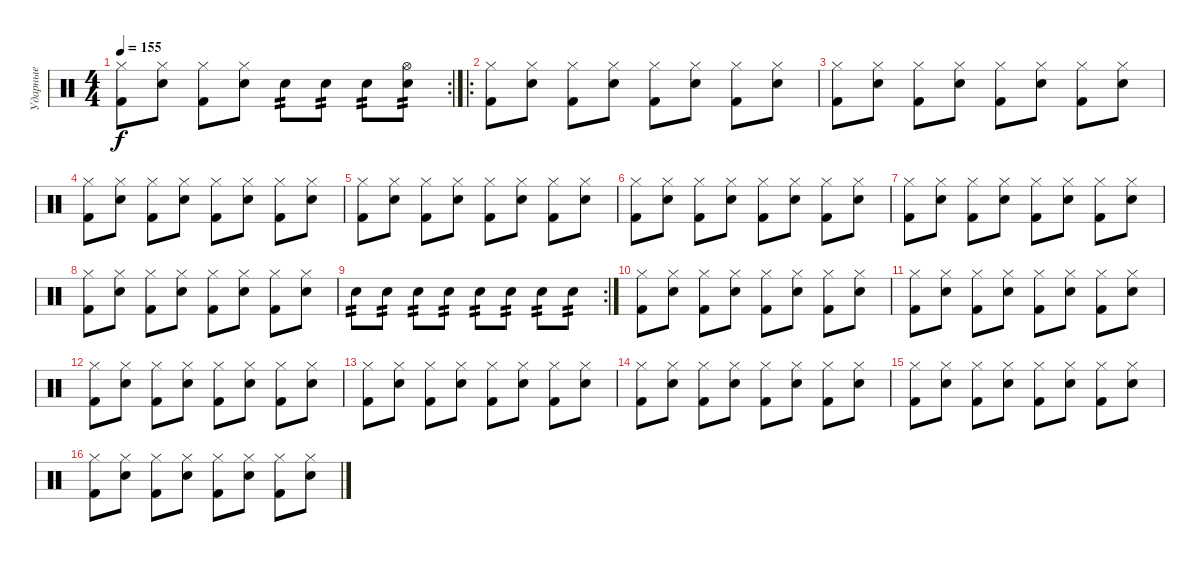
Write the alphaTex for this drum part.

\track ("Ударные" "Ударные") {instrument percussion}
\staff {score}
\articulation defaults
\rc 2
\ts (4 4)
\tempo 155
\clef neutral
\ks c
("Hi-Hat (closed)" "Kick (hit) 2").8{dy f} ("Hi-Hat (closed)" "Electric Snare (hit)").8 ("Hi-Hat (closed)" "Kick (hit) 2").8 ("Hi-Hat (closed)" "Electric Snare (hit)").8 "Electric Snare (hit)".8{tp 2} "Electric Snare (hit)".8{tp 2} "Electric Snare (hit)".8{tp 2} ("Hi-Hat (open)" "Electric Snare (hit)").8{tp 2} |
\ro
("Hi-Hat (closed)" "Kick (hit) 2").8 ("Hi-Hat (closed)" "Electric Snare (hit)").8 ("Hi-Hat (closed)" "Kick (hit) 2").8 ("Hi-Hat (closed)" "Electric Snare (hit)").8 ("Hi-Hat (closed)" "Kick (hit) 2").8 ("Hi-Hat (closed)" "Electric Snare (hit)").8 ("Hi-Hat (closed)" "Kick (hit) 2").8 ("Hi-Hat (closed)" "Electric Snare (hit)").8 |
("Hi-Hat (closed)" "Kick (hit) 2").8 ("Hi-Hat (closed)" "Electric Snare (hit)").8 ("Hi-Hat (closed)" "Kick (hit) 2").8 ("Hi-Hat (closed)" "Electric Snare (hit)").8 ("Hi-Hat (closed)" "Kick (hit) 2").8 ("Hi-Hat (closed)" "Electric Snare (hit)").8 ("Hi-Hat (closed)" "Kick (hit) 2").8 ("Hi-Hat (closed)" "Electric Snare (hit)").8 |
("Hi-Hat (closed)" "Kick (hit) 2").8 ("Hi-Hat (closed)" "Electric Snare (hit)").8 ("Hi-Hat (closed)" "Kick (hit) 2").8 ("Hi-Hat (closed)" "Electric Snare (hit)").8 ("Hi-Hat (closed)" "Kick (hit) 2").8 ("Hi-Hat (closed)" "Electric Snare (hit)").8 ("Hi-Hat (closed)" "Kick (hit) 2").8 ("Hi-Hat (closed)" "Electric Snare (hit)").8 |
("Hi-Hat (closed)" "Kick (hit) 2").8 ("Hi-Hat (closed)" "Electric Snare (hit)").8 ("Hi-Hat (closed)" "Kick (hit) 2").8 ("Hi-Hat (closed)" "Electric Snare (hit)").8 ("Hi-Hat (closed)" "Kick (hit) 2").8 ("Hi-Hat (closed)" "Electric Snare (hit)").8 ("Hi-Hat (closed)" "Kick (hit) 2").8 ("Hi-Hat (closed)" "Electric Snare (hit)").8 |
("Hi-Hat (closed)" "Kick (hit) 2").8 ("Hi-Hat (closed)" "Electric Snare (hit)").8 ("Hi-Hat (closed)" "Kick (hit) 2").8 ("Hi-Hat (closed)" "Electric Snare (hit)").8 ("Hi-Hat (closed)" "Kick (hit) 2").8 ("Hi-Hat (closed)" "Electric Snare (hit)").8 ("Hi-Hat (closed)" "Kick (hit) 2").8 ("Hi-Hat (closed)" "Electric Snare (hit)").8 |
("Hi-Hat (closed)" "Kick (hit) 2").8 ("Hi-Hat (closed)" "Electric Snare (hit)").8 ("Hi-Hat (closed)" "Kick (hit) 2").8 ("Hi-Hat (closed)" "Electric Snare (hit)").8 ("Hi-Hat (closed)" "Kick (hit) 2").8 ("Hi-Hat (closed)" "Electric Snare (hit)").8 ("Hi-Hat (closed)" "Kick (hit) 2").8 ("Hi-Hat (closed)" "Electric Snare (hit)").8 |
("Hi-Hat (closed)" "Kick (hit) 2").8 ("Hi-Hat (closed)" "Electric Snare (hit)").8 ("Hi-Hat (closed)" "Kick (hit) 2").8 ("Hi-Hat (closed)" "Electric Snare (hit)").8 ("Hi-Hat (closed)" "Kick (hit) 2").8 ("Hi-Hat (closed)" "Electric Snare (hit)").8 ("Hi-Hat (closed)" "Kick (hit) 2").8 ("Hi-Hat (closed)" "Electric Snare (hit)").8 |
\rc 2 "Electric Snare (hit)".8{tp 2} "Electric Snare (hit)".8{tp 2} "Electric Snare (hit)".8{tp 2} "Electric Snare (hit)".8{tp 2} "Snare (hit) 2".8{tp 2} "Snare (hit) 2".8{tp 2} "Snare (hit) 2".8{tp 2} "Snare (hit) 2".8{tp 2}
|
("Hi-Hat (closed)" "Kick (hit) 2").8 ("Hi-Hat (closed)" "Electric Snare (hit)").8 ("Hi-Hat (closed)" "Kick (hit) 2").8 ("Hi-Hat (closed)" "Electric Snare (hit)").8 ("Hi-Hat (closed)" "Kick (hit) 2").8 ("Hi-Hat (closed)" "Electric Snare (hit)").8 ("Hi-Hat (closed)" "Kick (hit) 2").8 ("Hi-Hat (closed)" "Electric Snare (hit)").8 |
("Hi-Hat (closed)" "Kick (hit) 2").8 ("Hi-Hat (closed)" "Electric Snare (hit)").8 ("Hi-Hat (closed)" "Kick (hit) 2").8 ("Hi-Hat (closed)" "Electric Snare (hit)").8 ("Hi-Hat (closed)" "Kick (hit) 2").8 ("Hi-Hat (closed)" "Electric Snare (hit)").8 ("Hi-Hat (closed)" "Kick (hit) 2").8 ("Hi-Hat (closed)" "Electric Snare (hit)").8 |
("Hi-Hat (closed)" "Kick (hit) 2").8 ("Hi-Hat (closed)" "Electric Snare (hit)").8 ("Hi-Hat (closed)" "Kick (hit) 2").8 ("Hi-Hat (closed)" "Electric Snare (hit)").8 ("Hi-Hat (closed)" "Kick (hit) 2").8 ("Hi-Hat (closed)" "Electric Snare (hit)").8 ("Hi-Hat (closed)" "Kick (hit) 2").8 ("Hi-Hat (closed)" "Electric Snare (hit)").8 |
("Hi-Hat (closed)" "Kick (hit) 2").8 ("Hi-Hat (closed)" "Electric Snare (hit)").8 ("Hi-Hat (closed)" "Kick (hit) 2").8 ("Hi-Hat (closed)" "Electric Snare (hit)").8 ("Hi-Hat (closed)" "Kick (hit) 2").8 ("Hi-Hat (closed)" "Electric Snare (hit)").8 ("Hi-Hat (closed)" "Kick (hit) 2").8 ("Hi-Hat (closed)" "Electric Snare (hit)").8 |
("Hi-Hat (closed)" "Kick (hit) 2").8 ("Hi-Hat (closed)" "Electric Snare (hit)").8 ("Hi-Hat (closed)" "Kick (hit) 2").8 ("Hi-Hat (closed)" "Electric Snare (hit)").8 ("Hi-Hat (closed)" "Kick (hit) 2").8 ("Hi-Hat (closed)" "Electric Snare (hit)").8 ("Hi-Hat (closed)" "Kick (hit) 2").8 ("Hi-Hat (closed)" "Electric Snare (hit)").8 |
("Hi-Hat (closed)" "Kick (hit) 2").8 ("Hi-Hat (closed)" "Electric Snare (hit)").8 ("Hi-Hat (closed)" "Kick (hit) 2").8 ("Hi-Hat (closed)" "Electric Snare (hit)").8 ("Hi-Hat (closed)" "Kick (hit) 2").8 ("Hi-Hat (closed)" "Electric Snare (hit)").8 ("Hi-Hat (closed)" "Kick (hit) 2").8 ("Hi-Hat (closed)" "Electric Snare (hit)").8 |
("Hi-Hat (closed)" "Kick (hit) 2").8 ("Hi-Hat (closed)" "Electric Snare (hit)").8 ("Hi-Hat (closed)" "Kick (hit) 2").8 ("Hi-Hat (closed)" "Electric Snare (hit)").8 ("Hi-Hat (closed)" "Kick (hit) 2").8 ("Hi-Hat (closed)" "Electric Snare (hit)").8 ("Hi-Hat (closed)" "Kick (hit) 2").8 ("Hi-Hat (closed)" "Electric Snare (hit)").8
